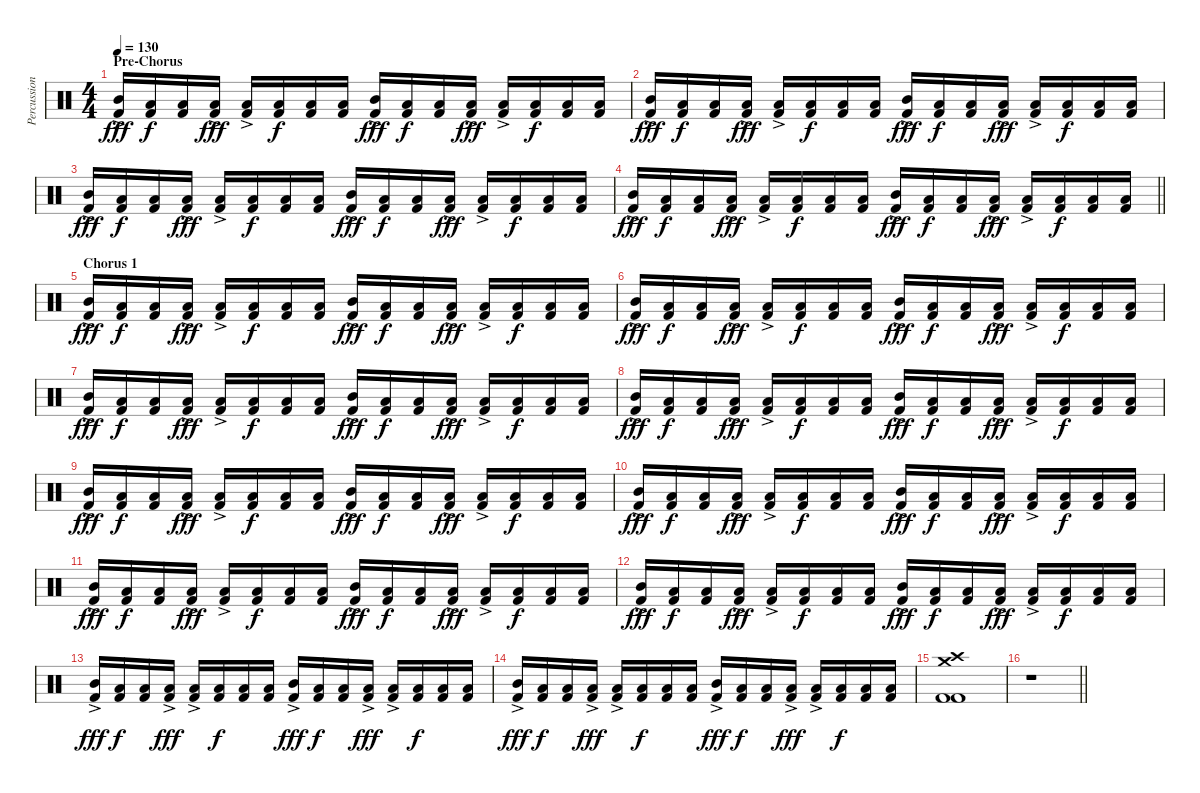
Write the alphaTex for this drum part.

\track ("Percussion" "Percussion") {instrument percussion}
\staff {score}
\articulation defaults
\ts (4 4)
\section ("" "Pre-Chorus")
\tempo 130
\clef neutral
\ks c
("Mid Tom (hit)"{ac} "Kick (hit) 2").16{dy fff} ("Low Floor Tom (hit)" "Kick (hit) 2").16{dy f} ("Low Floor Tom (hit)" "Kick (hit) 2").16 ("Low Tom (hit)"{ac} "Kick (hit) 2").16{dy fff} ("Low Tom (hit)"{ac} "Kick (hit) 2").16 ("Low Floor Tom (hit)" "Kick (hit) 2").16{dy f} ("Low Floor Tom (hit)" "Kick (hit) 2").16 ("Low Floor Tom (hit)" "Kick (hit) 2").16 ("Mid Tom (hit)"{ac} "Kick (hit) 2").16{dy fff} ("Low Floor Tom (hit)" "Kick (hit) 2").16{dy f} ("Low Floor Tom (hit)" "Kick (hit) 2").16 ("Low Tom (hit)"{ac} "Kick (hit) 2").16{dy fff} ("Low Tom (hit)"{ac} "Kick (hit) 2").16 ("Low Floor Tom (hit)" "Kick (hit) 2").16{dy f} ("Low Floor Tom (hit)" "Kick (hit) 2").16 ("Low Floor Tom (hit)" "Kick (hit) 2").16 |
("Mid Tom (hit)"{ac} "Kick (hit) 2").16{dy fff} ("Low Floor Tom (hit)" "Kick (hit) 2").16{dy f} ("Low Floor Tom (hit)" "Kick (hit) 2").16 ("Low Tom (hit)"{ac} "Kick (hit) 2").16{dy fff} ("Low Tom (hit)"{ac} "Kick (hit) 2").16 ("Low Floor Tom (hit)" "Kick (hit) 2").16{dy f} ("Low Floor Tom (hit)" "Kick (hit) 2").16 ("Low Floor Tom (hit)" "Kick (hit) 2").16 ("Mid Tom (hit)"{ac} "Kick (hit) 2").16{dy fff} ("Low Floor Tom (hit)" "Kick (hit) 2").16{dy f} ("Low Floor Tom (hit)" "Kick (hit) 2").16 ("Low Tom (hit)"{ac} "Kick (hit) 2").16{dy fff} ("Low Tom (hit)"{ac} "Kick (hit) 2").16 ("Low Floor Tom (hit)" "Kick (hit) 2").16{dy f} ("Low Floor Tom (hit)" "Kick (hit) 2").16 ("Low Floor Tom (hit)" "Kick (hit) 2").16 |
("Mid Tom (hit)"{ac} "Kick (hit) 2").16{dy fff} ("Low Floor Tom (hit)" "Kick (hit) 2").16{dy f} ("Low Floor Tom (hit)" "Kick (hit) 2").16 ("Low Tom (hit)"{ac} "Kick (hit) 2").16{dy fff} ("Low Tom (hit)"{ac} "Kick (hit) 2").16 ("Low Floor Tom (hit)" "Kick (hit) 2").16{dy f} ("Low Floor Tom (hit)" "Kick (hit) 2").16 ("Low Floor Tom (hit)" "Kick (hit) 2").16 ("Mid Tom (hit)"{ac} "Kick (hit) 2").16{dy fff} ("Low Floor Tom (hit)" "Kick (hit) 2").16{dy f} ("Low Floor Tom (hit)" "Kick (hit) 2").16 ("Low Tom (hit)"{ac} "Kick (hit) 2").16{dy fff} ("Low Tom (hit)"{ac} "Kick (hit) 2").16 ("Low Floor Tom (hit)" "Kick (hit) 2").16{dy f} ("Low Floor Tom (hit)" "Kick (hit) 2").16 ("Low Floor Tom (hit)" "Kick (hit) 2").16 |
\barLineRight lightlight
("Mid Tom (hit)"{ac} "Kick (hit) 2").16{dy fff} ("Low Floor Tom (hit)" "Kick (hit) 2").16{dy f} ("Low Floor Tom (hit)" "Kick (hit) 2").16 ("Low Tom (hit)"{ac} "Kick (hit) 2").16{dy fff} ("Low Tom (hit)"{ac} "Kick (hit) 2").16 ("Low Floor Tom (hit)" "Kick (hit) 2").16{dy f} ("Low Floor Tom (hit)" "Kick (hit) 2").16 ("Low Floor Tom (hit)" "Kick (hit) 2").16 ("Mid Tom (hit)"{ac} "Kick (hit) 2").16{dy fff} ("Low Floor Tom (hit)" "Kick (hit) 2").16{dy f} ("Low Floor Tom (hit)" "Kick (hit) 2").16 ("Low Tom (hit)"{ac} "Kick (hit) 2").16{dy fff} ("Low Tom (hit)"{ac} "Kick (hit) 2").16 ("Low Floor Tom (hit)" "Kick (hit) 2").16{dy f} ("Low Floor Tom (hit)" "Kick (hit) 2").16 ("Low Floor Tom (hit)" "Kick (hit) 2").16 |
\section ("" "Chorus 1")
("Mid Tom (hit)"{ac} "Kick (hit) 2").16{dy fff} ("Low Floor Tom (hit)" "Kick (hit) 2").16{dy f} ("Low Floor Tom (hit)" "Kick (hit) 2").16 ("Low Tom (hit)"{ac} "Kick (hit) 2").16{dy fff} ("Low Tom (hit)"{ac} "Kick (hit) 2").16 ("Low Floor Tom (hit)" "Kick (hit) 2").16{dy f} ("Low Floor Tom (hit)" "Kick (hit) 2").16 ("Low Floor Tom (hit)" "Kick (hit) 2").16 ("Mid Tom (hit)"{ac} "Kick (hit) 2").16{dy fff} ("Low Floor Tom (hit)" "Kick (hit) 2").16{dy f} ("Low Floor Tom (hit)" "Kick (hit) 2").16 ("Low Tom (hit)"{ac} "Kick (hit) 2").16{dy fff} ("Low Tom (hit)"{ac} "Kick (hit) 2").16 ("Low Floor Tom (hit)" "Kick (hit) 2").16{dy f} ("Low Floor Tom (hit)" "Kick (hit) 2").16 ("Low Floor Tom (hit)" "Kick (hit) 2").16 |
("Mid Tom (hit)"{ac} "Kick (hit) 2").16{dy fff} ("Low Floor Tom (hit)" "Kick (hit) 2").16{dy f} ("Low Floor Tom (hit)" "Kick (hit) 2").16 ("Low Tom (hit)"{ac} "Kick (hit) 2").16{dy fff} ("Low Tom (hit)"{ac} "Kick (hit) 2").16 ("Low Floor Tom (hit)" "Kick (hit) 2").16{dy f} ("Low Floor Tom (hit)" "Kick (hit) 2").16 ("Low Floor Tom (hit)" "Kick (hit) 2").16 ("Mid Tom (hit)"{ac} "Kick (hit) 2").16{dy fff} ("Low Floor Tom (hit)" "Kick (hit) 2").16{dy f} ("Low Floor Tom (hit)" "Kick (hit) 2").16 ("Low Tom (hit)"{ac} "Kick (hit) 2").16{dy fff} ("Low Tom (hit)"{ac} "Kick (hit) 2").16 ("Low Floor Tom (hit)" "Kick (hit) 2").16{dy f} ("Low Floor Tom (hit)" "Kick (hit) 2").16 ("Low Floor Tom (hit)" "Kick (hit) 2").16 |
("Mid Tom (hit)"{ac} "Kick (hit) 2").16{dy fff} ("Low Floor Tom (hit)" "Kick (hit) 2").16{dy f} ("Low Floor Tom (hit)" "Kick (hit) 2").16 ("Low Tom (hit)"{ac} "Kick (hit) 2").16{dy fff} ("Low Tom (hit)"{ac} "Kick (hit) 2").16 ("Low Floor Tom (hit)" "Kick (hit) 2").16{dy f} ("Low Floor Tom (hit)" "Kick (hit) 2").16 ("Low Floor Tom (hit)" "Kick (hit) 2").16 ("Mid Tom (hit)"{ac} "Kick (hit) 2").16{dy fff} ("Low Floor Tom (hit)" "Kick (hit) 2").16{dy f} ("Low Floor Tom (hit)" "Kick (hit) 2").16 ("Low Tom (hit)"{ac} "Kick (hit) 2").16{dy fff} ("Low Tom (hit)"{ac} "Kick (hit) 2").16 ("Low Floor Tom (hit)" "Kick (hit) 2").16{dy f} ("Low Floor Tom (hit)" "Kick (hit) 2").16 ("Low Floor Tom (hit)" "Kick (hit) 2").16 |
("Mid Tom (hit)"{ac} "Kick (hit) 2").16{dy fff} ("Low Floor Tom (hit)" "Kick (hit) 2").16{dy f} ("Low Floor Tom (hit)" "Kick (hit) 2").16 ("Low Tom (hit)"{ac} "Kick (hit) 2").16{dy fff} ("Low Tom (hit)"{ac} "Kick (hit) 2").16 ("Low Floor Tom (hit)" "Kick (hit) 2").16{dy f} ("Low Floor Tom (hit)" "Kick (hit) 2").16 ("Low Floor Tom (hit)" "Kick (hit) 2").16 ("Mid Tom (hit)"{ac} "Kick (hit) 2").16{dy fff} ("Low Floor Tom (hit)" "Kick (hit) 2").16{dy f} ("Low Floor Tom (hit)" "Kick (hit) 2").16 ("Low Tom (hit)"{ac} "Kick (hit) 2").16{dy fff} ("Low Tom (hit)"{ac} "Kick (hit) 2").16 ("Low Floor Tom (hit)" "Kick (hit) 2").16{dy f} ("Low Floor Tom (hit)" "Kick (hit) 2").16 ("Low Floor Tom (hit)" "Kick (hit) 2").16 |
("Mid Tom (hit)"{ac} "Kick (hit) 2").16{dy fff} ("Low Floor Tom (hit)" "Kick (hit) 2").16{dy f} ("Low Floor Tom (hit)" "Kick (hit) 2").16 ("Low Tom (hit)"{ac} "Kick (hit) 2").16{dy fff} ("Low Tom (hit)"{ac} "Kick (hit) 2").16 ("Low Floor Tom (hit)" "Kick (hit) 2").16{dy f} ("Low Floor Tom (hit)" "Kick (hit) 2").16 ("Low Floor Tom (hit)" "Kick (hit) 2").16 ("Mid Tom (hit)"{ac} "Kick (hit) 2").16{dy fff} ("Low Floor Tom (hit)" "Kick (hit) 2").16{dy f} ("Low Floor Tom (hit)" "Kick (hit) 2").16 ("Low Tom (hit)"{ac} "Kick (hit) 2").16{dy fff} ("Low Tom (hit)"{ac} "Kick (hit) 2").16 ("Low Floor Tom (hit)" "Kick (hit) 2").16{dy f} ("Low Floor Tom (hit)" "Kick (hit) 2").16 ("Low Floor Tom (hit)" "Kick (hit) 2").16 |
("Mid Tom (hit)"{ac} "Kick (hit) 2").16{dy fff} ("Low Floor Tom (hit)" "Kick (hit) 2").16{dy f} ("Low Floor Tom (hit)" "Kick (hit) 2").16 ("Low Tom (hit)"{ac} "Kick (hit) 2").16{dy fff} ("Low Tom (hit)"{ac} "Kick (hit) 2").16 ("Low Floor Tom (hit)" "Kick (hit) 2").16{dy f} ("Low Floor Tom (hit)" "Kick (hit) 2").16 ("Low Floor Tom (hit)" "Kick (hit) 2").16 ("Mid Tom (hit)"{ac} "Kick (hit) 2").16{dy fff} ("Low Floor Tom (hit)" "Kick (hit) 2").16{dy f} ("Low Floor Tom (hit)" "Kick (hit) 2").16 ("Low Tom (hit)"{ac} "Kick (hit) 2").16{dy fff} ("Low Tom (hit)"{ac} "Kick (hit) 2").16 ("Low Floor Tom (hit)" "Kick (hit) 2").16{dy f} ("Low Floor Tom (hit)" "Kick (hit) 2").16 ("Low Floor Tom (hit)" "Kick (hit) 2").16 |
("Mid Tom (hit)"{ac} "Kick (hit) 2").16{dy fff} ("Low Floor Tom (hit)" "Kick (hit) 2").16{dy f} ("Low Floor Tom (hit)" "Kick (hit) 2").16 ("Low Tom (hit)"{ac} "Kick (hit) 2").16{dy fff} ("Low Tom (hit)"{ac} "Kick (hit) 2").16 ("Low Floor Tom (hit)" "Kick (hit) 2").16{dy f} ("Low Floor Tom (hit)" "Kick (hit) 2").16 ("Low Floor Tom (hit)" "Kick (hit) 2").16 ("Mid Tom (hit)"{ac} "Kick (hit) 2").16{dy fff} ("Low Floor Tom (hit)" "Kick (hit) 2").16{dy f} ("Low Floor Tom (hit)" "Kick (hit) 2").16 ("Low Tom (hit)"{ac} "Kick (hit) 2").16{dy fff} ("Low Tom (hit)"{ac} "Kick (hit) 2").16 ("Low Floor Tom (hit)" "Kick (hit) 2").16{dy f} ("Low Floor Tom (hit)" "Kick (hit) 2").16 ("Low Floor Tom (hit)" "Kick (hit) 2").16 |
("Mid Tom (hit)"{ac} "Kick (hit) 2").16{dy fff} ("Low Floor Tom (hit)" "Kick (hit) 2").16{dy f} ("Low Floor Tom (hit)" "Kick (hit) 2").16 ("Low Tom (hit)"{ac} "Kick (hit) 2").16{dy fff} ("Low Tom (hit)"{ac} "Kick (hit) 2").16 ("Low Floor Tom (hit)" "Kick (hit) 2").16{dy f} ("Low Floor Tom (hit)" "Kick (hit) 2").16 ("Low Floor Tom (hit)" "Kick (hit) 2").16 ("Mid Tom (hit)"{ac} "Kick (hit) 2").16{dy fff} ("Low Floor Tom (hit)" "Kick (hit) 2").16{dy f} ("Low Floor Tom (hit)" "Kick (hit) 2").16 ("Low Tom (hit)"{ac} "Kick (hit) 2").16{dy fff} ("Low Tom (hit)"{ac} "Kick (hit) 2").16 ("Low Floor Tom (hit)" "Kick (hit) 2").16{dy f} ("Low Floor Tom (hit)" "Kick (hit) 2").16 ("Low Floor Tom (hit)" "Kick (hit) 2").16 |
("Mid Tom (hit)"{ac} "Kick (hit) 2").16{dy fff} ("Low Floor Tom (hit)" "Kick (hit) 2").16{dy f} ("Low Floor Tom (hit)" "Kick (hit) 2").16 ("Low Tom (hit)"{ac} "Kick (hit) 2").16{dy fff} ("Low Tom (hit)"{ac} "Kick (hit) 2").16 ("Low Floor Tom (hit)" "Kick (hit) 2").16{dy f} ("Low Floor Tom (hit)" "Kick (hit) 2").16 ("Low Floor Tom (hit)" "Kick (hit) 2").16 ("Mid Tom (hit)"{ac} "Kick (hit) 2").16{dy fff} ("Low Floor Tom (hit)" "Kick (hit) 2").16{dy f} ("Low Floor Tom (hit)" "Kick (hit) 2").16 ("Low Tom (hit)"{ac} "Kick (hit) 2").16{dy fff} ("Low Tom (hit)"{ac} "Kick (hit) 2").16 ("Low Floor Tom (hit)" "Kick (hit) 2").16{dy f} ("Low Floor Tom (hit)" "Kick (hit) 2").16 ("Low Floor Tom (hit)" "Kick (hit) 2").16 |
("Mid Tom (hit)"{ac} "Kick (hit) 2").16{dy fff} ("Low Floor Tom (hit)" "Kick (hit) 2").16{dy f} ("Low Floor Tom (hit)" "Kick (hit) 2").16 ("Low Tom (hit)"{ac} "Kick (hit) 2").16{dy fff} ("Low Tom (hit)"{ac} "Kick (hit) 2").16 ("Low Floor Tom (hit)" "Kick (hit) 2").16{dy f} ("Low Floor Tom (hit)" "Kick (hit) 2").16 ("Low Floor Tom (hit)" "Kick (hit) 2").16 ("Mid Tom (hit)"{ac} "Kick (hit) 2").16{dy fff} ("Low Floor Tom (hit)" "Kick (hit) 2").16{dy f} ("Low Floor Tom (hit)" "Kick (hit) 2").16 ("Low Tom (hit)"{ac} "Kick (hit) 2").16{dy fff} ("Low Tom (hit)"{ac} "Kick (hit) 2").16 ("Low Floor Tom (hit)" "Kick (hit) 2").16{dy f} ("Low Floor Tom (hit)" "Kick (hit) 2").16 ("Low Floor Tom (hit)" "Kick (hit) 2").16 |
("Crash high (hit)" "Crash medium (hit)" "Kick (hit) 2" "Kick (hit) 2").1 |
\barLineRight lightlight
r.1
